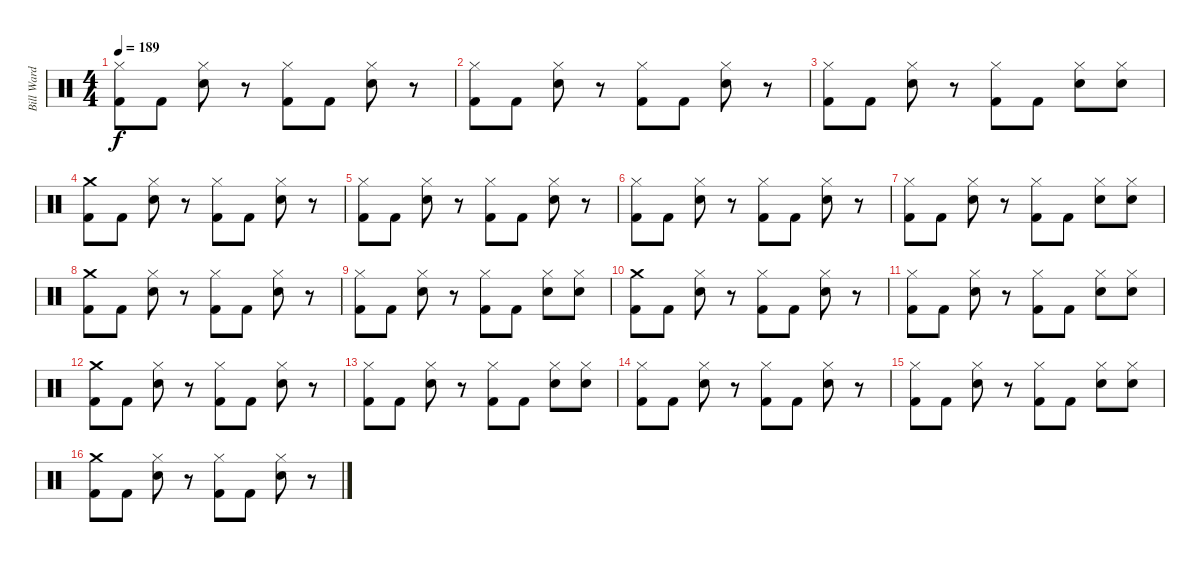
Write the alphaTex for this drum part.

\track ("Bill Ward" "Bill Ward") {instrument percussion}
\staff {score}
\articulation defaults
\ts (4 4)
\tempo 189
\clef neutral
\ks c
("Hi-Hat (closed)" "Kick (hit) 2").8{dy f} "Kick (hit) 2".8 ("Hi-Hat (closed)" "Electric Snare (hit)").8 r.8 ("Kick (hit) 2" "Hi-Hat (closed)").8 "Kick (hit) 2".8 ("Hi-Hat (closed)" "Electric Snare (hit)").8 r.8 |
("Hi-Hat (closed)" "Kick (hit) 2").8 "Kick (hit) 2".8 ("Hi-Hat (closed)" "Electric Snare (hit)").8 r.8 ("Kick (hit) 2" "Hi-Hat (closed)").8 "Kick (hit) 2".8 ("Hi-Hat (closed)" "Electric Snare (hit)").8 r.8 |
("Hi-Hat (closed)" "Kick (hit) 2").8 "Kick (hit) 2".8 ("Hi-Hat (closed)" "Electric Snare (hit)").8 r.8 ("Kick (hit) 2" "Hi-Hat (closed)").8 "Kick (hit) 2".8 ("Electric Snare (hit)" "Hi-Hat (closed)").8 ("Hi-Hat (closed)" "Electric Snare (hit)").8 |
("Kick (hit) 2" "Crash medium (hit)").8 "Kick (hit) 2".8 ("Hi-Hat (closed)" "Electric Snare (hit)").8 r.8 ("Kick (hit) 2" "Hi-Hat (closed)").8 "Kick (hit) 2".8 ("Electric Snare (hit)" "Hi-Hat (closed)").8 r.8 |
("Hi-Hat (closed)" "Kick (hit) 2").8 "Kick (hit) 2".8 ("Hi-Hat (closed)" "Electric Snare (hit)").8 r.8 ("Hi-Hat (closed)" "Kick (hit) 2").8 "Kick (hit) 2".8 ("Electric Snare (hit)" "Hi-Hat (closed)").8 r.8 |
("Hi-Hat (closed)" "Kick (hit) 2").8 "Kick (hit) 2".8 ("Hi-Hat (closed)" "Electric Snare (hit)").8 r.8 ("Hi-Hat (closed)" "Kick (hit) 2").8 "Kick (hit) 2".8 ("Hi-Hat (closed)" "Electric Snare (hit)").8 r.8 |
("Hi-Hat (closed)" "Kick (hit) 2").8 "Kick (hit) 2".8 ("Electric Snare (hit)" "Hi-Hat (closed)").8 r.8 ("Hi-Hat (closed)" "Kick (hit) 2").8 "Kick (hit) 2".8 ("Hi-Hat (closed)" "Electric Snare (hit)").8 ("Hi-Hat (closed)" "Electric Snare (hit)").8 |
("Crash medium (hit)" "Kick (hit) 2").8 "Kick (hit) 2".8 ("Hi-Hat (closed)" "Electric Snare (hit)").8 r.8 ("Hi-Hat (closed)" "Kick (hit) 2").8 "Kick (hit) 2".8 ("Hi-Hat (closed)" "Electric Snare (hit)").8 r.8 |
("Hi-Hat (closed)" "Kick (hit) 2").8 "Kick (hit) 2".8 ("Electric Snare (hit)" "Hi-Hat (closed)").8 r.8 ("Kick (hit) 2" "Hi-Hat (closed)").8 "Kick (hit) 2".8 ("Electric Snare (hit)" "Hi-Hat (closed)").8 ("Electric Snare (hit)" "Hi-Hat (closed)").8 |
("Kick (hit) 2" "Crash medium (hit)").8 "Kick (hit) 2".8 ("Hi-Hat (closed)" "Electric Snare (hit)").8 r.8 ("Kick (hit) 2" "Hi-Hat (closed)").8 "Kick (hit) 2".8 ("Hi-Hat (closed)" "Electric Snare (hit)").8 r.8 |
("Hi-Hat (closed)" "Kick (hit) 2").8 "Kick (hit) 2".8 ("Hi-Hat (closed)" "Electric Snare (hit)").8 r.8 ("Kick (hit) 2" "Hi-Hat (closed)").8 "Kick (hit) 2".8 ("Electric Snare (hit)" "Hi-Hat (closed)").8 ("Hi-Hat (closed)" "Electric Snare (hit)").8 |
("Kick (hit) 2" "Crash medium (hit)").8 "Kick (hit) 2".8 ("Hi-Hat (closed)" "Electric Snare (hit)").8 r.8 ("Hi-Hat (closed)" "Kick (hit) 2").8 "Kick (hit) 2".8 ("Hi-Hat (closed)" "Electric Snare (hit)").8 r.8 |
("Hi-Hat (closed)" "Kick (hit) 2").8 "Kick (hit) 2".8 ("Electric Snare (hit)" "Hi-Hat (closed)").8 r.8 ("Hi-Hat (closed)" "Kick (hit) 2").8 "Kick (hit) 2".8 ("Electric Snare (hit)" "Hi-Hat (closed)").8 ("Hi-Hat (closed)" "Electric Snare (hit)").8 |
("Kick (hit) 2" "Hi-Hat (closed)").8 "Kick (hit) 2".8 ("Hi-Hat (closed)" "Electric Snare (hit)").8 r.8 ("Kick (hit) 2" "Hi-Hat (closed)").8 "Kick (hit) 2".8 ("Hi-Hat (closed)" "Electric Snare (hit)").8 r.8 |
("Hi-Hat (closed)" "Kick (hit) 2").8 "Kick (hit) 2".8 ("Hi-Hat (closed)" "Electric Snare (hit)").8 r.8 ("Kick (hit) 2" "Hi-Hat (closed)").8 "Kick (hit) 2".8 ("Hi-Hat (closed)" "Electric Snare (hit)").8 ("Hi-Hat (closed)" "Electric Snare (hit)").8 |
("Crash medium (hit)" "Kick (hit) 2").8 "Kick (hit) 2".8 ("Hi-Hat (closed)" "Electric Snare (hit)").8 r.8 ("Kick (hit) 2" "Hi-Hat (closed)").8 "Kick (hit) 2".8 ("Hi-Hat (closed)" "Electric Snare (hit)").8 r.8
